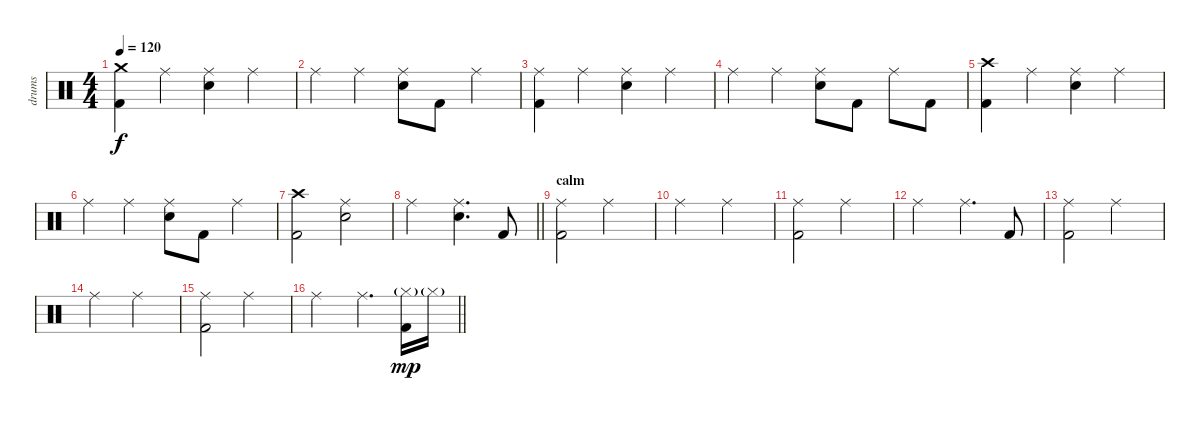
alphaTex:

\track ("drums" "drums") {instrument percussion}
\staff {score}
\articulation defaults
\ts (4 4)
\tempo 120
\clef neutral
\ks c
("Crash medium (hit)" "Kick (hit) 2").4{dy f} "Ride (middle)".4 ("Ride (middle)" "Electric Snare (hit)").4 "Ride (middle)".4 |
"Ride (middle)".4 "Ride (middle)".4 ("Ride (middle)" "Electric Snare (hit)").8 "Kick (hit) 2".8 "Ride (middle)".4 |
("Ride (middle)" "Kick (hit) 2").4 "Ride (middle)".4 ("Ride (middle)" "Electric Snare (hit)").4 "Ride (middle)".4 |
"Ride (middle)".4 "Ride (middle)".4 ("Ride (middle)" "Electric Snare (hit)").8 "Kick (hit) 2".8 "Ride (middle)".8 "Kick (hit) 2".8 |
("Crash high (hit)" "Kick (hit) 2").4 "Ride (middle)".4 ("Ride (middle)" "Electric Snare (hit)").4 "Ride (middle)".4 |
"Ride (middle)".4 "Ride (middle)".4 ("Ride (middle)" "Electric Snare (hit)").8 "Kick (hit) 2".8 "Ride (middle)".4 |
("Crash high (hit)" "Kick (hit) 2").2 ("Ride (middle)" "Electric Snare (hit)").2 |
\barLineRight lightlight "Ride (middle)".2
("Ride (middle)" "Electric Snare (hit)").4{d} "Kick (hit) 2".8 |
\section ("" "calm")
("Ride (middle)" "Kick (hit) 2").2 "Ride (middle)".2 |
"Ride (middle)".2 "Ride (middle)".2 |
("Ride (middle)" "Kick (hit) 2").2 "Ride (middle)".2 |
"Ride (middle)".2 "Ride (middle)".4{d} "Kick (hit) 2".8 |
("Ride (middle)" "Kick (hit) 2").2 "Ride (middle)".2 |
"Ride (middle)".2 "Ride (middle)".2 |
("Ride (middle)" "Kick (hit) 2").2 "Ride (middle)".2 |
\barLineRight lightlight "Ride (middle)".2 "Ride (middle)".4{d}
("Hi-Hat (closed)"{g} "Kick (hit) 2").16{dy mp} "Hi-Hat (closed)"{g}.16
